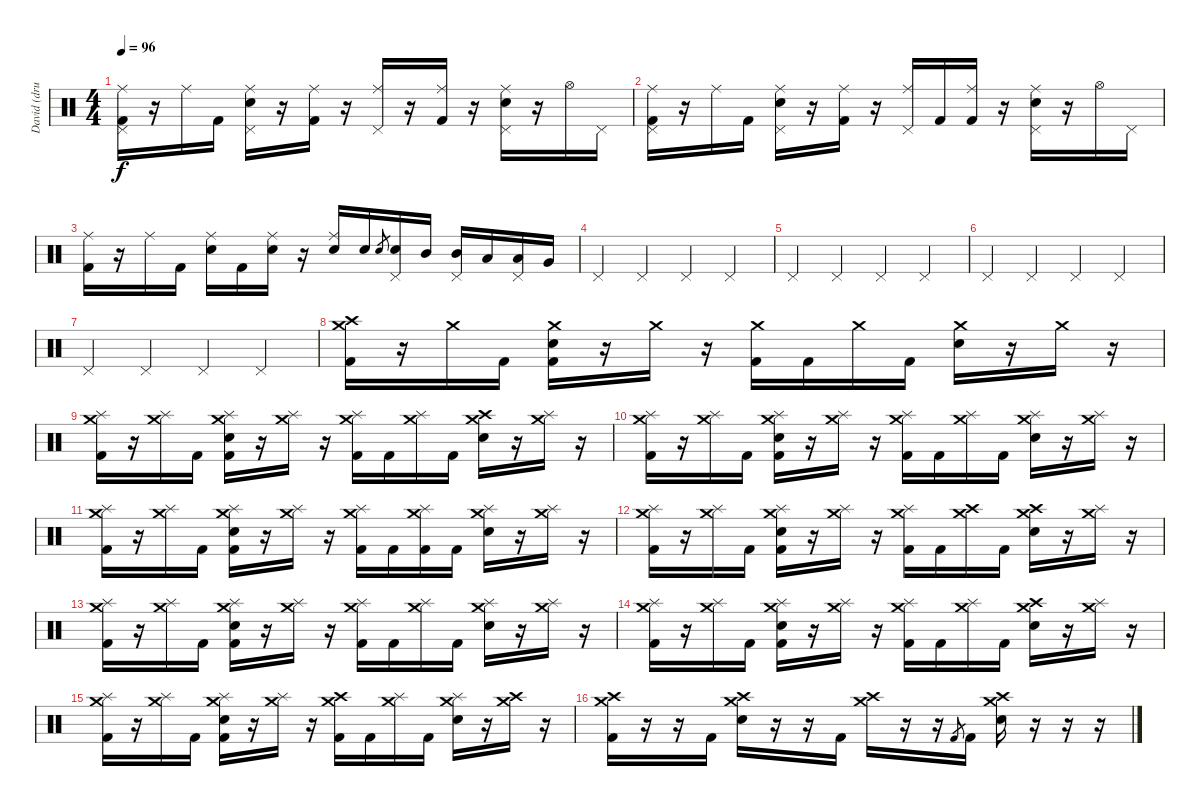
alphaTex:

\track ("David (drums)" "David (dru") {instrument percussion}
\staff {score}
\articulation defaults
\ts (4 4)
\tempo 96
\clef neutral
\ks c
("Ride (middle)" "Pedal Hi-Hat (hit)" "Kick (hit) 2").16{dy f} r.16 "Ride (middle)".16 "Kick (hit) 2".16 ("Ride (middle)" "Pedal Hi-Hat (hit)" "Electric Snare (hit)").16 r.16 ("Ride (middle)" "Kick (hit) 2").16 r.16 ("Ride (middle)" "Pedal Hi-Hat (hit)").16 r.16 ("Ride (middle)" "Kick (hit) 2").16 r.16 ("Ride (middle)" "Pedal Hi-Hat (hit)" "Electric Snare (hit)").16 r.16 "Hi-Hat (open)".16 "Pedal Hi-Hat (hit)".16 |
("Ride (middle)" "Pedal Hi-Hat (hit)" "Kick (hit) 2").16 r.16 "Ride (middle)".16 "Kick (hit) 2".16 ("Ride (middle)" "Pedal Hi-Hat (hit)" "Electric Snare (hit)").16 r.16 ("Ride (middle)" "Kick (hit) 2").16 r.16 ("Ride (middle)" "Pedal Hi-Hat (hit)").16 "Kick (hit) 2".16 ("Ride (middle)" "Kick (hit) 2").16 r.16 ("Ride (middle)" "Pedal Hi-Hat (hit)" "Electric Snare (hit)").16 r.16 "Hi-Hat (open)".16 "Pedal Hi-Hat (hit)".16 |
("Ride (middle)" "Kick (hit) 2").16 r.16 "Ride (middle)".16 "Kick (hit) 2".16 ("Ride (middle)" "Electric Snare (hit)").16 "Kick (hit) 2".16 ("Ride (middle)" "Electric Snare (hit)").16 r.16 ("Ride (middle)" "Electric Snare (hit)").16 "Electric Snare (hit)".16 "Electric Snare (hit)".8{gr} ("Pedal Hi-Hat (hit)" "Electric Snare (hit)").16 "Mid Tom (hit)".16 ("Pedal Hi-Hat (hit)" "Mid Tom (hit)").16 "Low Tom (hit)".16 ("Pedal Hi-Hat (hit)" "Low Tom (hit)").16 "Very Low Tom (hit)".16 |
"Pedal Hi-Hat (hit)".4 "Pedal Hi-Hat (hit)".4 "Pedal Hi-Hat (hit)".4 "Pedal Hi-Hat (hit)".4 |
"Pedal Hi-Hat (hit)".4 "Pedal Hi-Hat (hit)".4 "Pedal Hi-Hat (hit)".4 "Pedal Hi-Hat (hit)".4 |
"Pedal Hi-Hat (hit)".4 "Pedal Hi-Hat (hit)".4 "Pedal Hi-Hat (hit)".4 "Pedal Hi-Hat (hit)".4 |
"Pedal Hi-Hat (hit)".4 "Pedal Hi-Hat (hit)".4 "Pedal Hi-Hat (hit)".4 "Pedal Hi-Hat (hit)".4 |
("Crash high (hit)" "Crash medium (hit)" "Kick (hit) 2").16 r.16 "Crash medium (hit)".16 "Kick (hit) 2".16 ("Crash medium (hit)" "Electric Snare (hit)" "Kick (hit) 2").16 r.16 "Crash medium (hit)".16 r.16 ("Crash medium (hit)" "Kick (hit) 2").16 "Kick (hit) 2".16 "Crash medium (hit)".16 "Kick (hit) 2".16 ("Crash medium (hit)" "Electric Snare (hit)").16 r.16 "Crash medium (hit)".16 r.16 |
("Splash (hit)" "Crash medium (hit)" "Kick (hit) 2").16 r.16 ("Splash (hit)" "Crash medium (hit)").16 "Kick (hit) 2".16 ("Splash (hit)" "Crash medium (hit)" "Electric Snare (hit)" "Kick (hit) 2").16 r.16 ("Splash (hit)" "Crash medium (hit)").16 r.16 ("Splash (hit)" "Crash medium (hit)" "Kick (hit) 2").16 "Kick (hit) 2".16 ("Splash (hit)" "Crash medium (hit)").16 "Kick (hit) 2".16 ("Crash high (hit)" "Crash medium (hit)" "Electric Snare (hit)").16 r.16 ("Splash (hit)" "Crash medium (hit)").16 r.16 |
("Splash (hit)" "Crash medium (hit)" "Kick (hit) 2").16 r.16 ("Splash (hit)" "Crash medium (hit)").16 "Kick (hit) 2".16 ("Splash (hit)" "Crash medium (hit)" "Electric Snare (hit)" "Kick (hit) 2").16 r.16 ("Splash (hit)" "Crash medium (hit)").16 r.16 ("Splash (hit)" "Crash medium (hit)" "Kick (hit) 2").16 "Kick (hit) 2".16 ("Splash (hit)" "Crash medium (hit)").16 "Kick (hit) 2".16 ("Splash (hit)" "Crash medium (hit)" "Electric Snare (hit)").16 r.16 ("Splash (hit)" "Crash medium (hit)").16 r.16 |
("Splash (hit)" "Crash medium (hit)" "Kick (hit) 2").16 r.16 ("Splash (hit)" "Crash medium (hit)").16 "Kick (hit) 2".16 ("Splash (hit)" "Crash medium (hit)" "Electric Snare (hit)" "Kick (hit) 2").16 r.16 ("Splash (hit)" "Crash medium (hit)").16 r.16 ("Splash (hit)" "Crash medium (hit)" "Kick (hit) 2").16 "Kick (hit) 2".16 ("Splash (hit)" "Crash medium (hit)" "Kick (hit) 2").16 "Kick (hit) 2".16 ("Splash (hit)" "Crash medium (hit)" "Electric Snare (hit)").16 r.16 ("Splash (hit)" "Crash medium (hit)").16 r.16 |
("Splash (hit)" "Crash medium (hit)" "Kick (hit) 2").16 r.16 ("Splash (hit)" "Crash medium (hit)").16 "Kick (hit) 2".16 ("Splash (hit)" "Crash medium (hit)" "Electric Snare (hit)" "Kick (hit) 2").16 r.16 ("Splash (hit)" "Crash medium (hit)").16 r.16 ("Splash (hit)" "Crash medium (hit)" "Kick (hit) 2").16 "Kick (hit) 2".16 ("Crash high (hit)" "Crash medium (hit)").16 "Kick (hit) 2".16 ("Crash high (hit)" "Crash medium (hit)" "Electric Snare (hit)").16 r.16 ("Splash (hit)" "Crash medium (hit)").16 r.16 |
("Splash (hit)" "Crash medium (hit)" "Kick (hit) 2").16 r.16 ("Splash (hit)" "Crash medium (hit)").16 "Kick (hit) 2".16 ("Splash (hit)" "Crash medium (hit)" "Electric Snare (hit)" "Kick (hit) 2").16 r.16 ("Splash (hit)" "Crash medium (hit)").16 r.16 ("Splash (hit)" "Crash medium (hit)" "Kick (hit) 2").16 "Kick (hit) 2".16 ("Splash (hit)" "Crash medium (hit)").16 "Kick (hit) 2".16 ("Splash (hit)" "Crash medium (hit)" "Electric Snare (hit)").16 r.16 ("Splash (hit)" "Crash medium (hit)").16 r.16 |
("Splash (hit)" "Crash medium (hit)" "Kick (hit) 2").16 r.16 ("Splash (hit)" "Crash medium (hit)").16 "Kick (hit) 2".16 ("Splash (hit)" "Crash medium (hit)" "Electric Snare (hit)" "Kick (hit) 2").16 r.16 ("Splash (hit)" "Crash medium (hit)").16 r.16 ("Splash (hit)" "Crash medium (hit)" "Kick (hit) 2").16 "Kick (hit) 2".16 ("Splash (hit)" "Crash medium (hit)").16 "Kick (hit) 2".16 ("Crash high (hit)" "Crash medium (hit)" "Electric Snare (hit)").16 r.16 ("Splash (hit)" "Crash medium (hit)").16 r.16 |
("Splash (hit)" "Crash medium (hit)" "Kick (hit) 2").16 r.16 ("Splash (hit)" "Crash medium (hit)").16 "Kick (hit) 2".16 ("Splash (hit)" "Crash medium (hit)" "Electric Snare (hit)" "Kick (hit) 2").16 r.16 ("Splash (hit)" "Crash medium (hit)").16 r.16 ("Crash high (hit)" "Crash medium (hit)" "Kick (hit) 2").16 "Kick (hit) 2".16 ("Splash (hit)" "Crash medium (hit)").16 "Kick (hit) 2".16 ("Splash (hit)" "Crash medium (hit)" "Electric Snare (hit)").16 r.16 ("Crash high (hit)" "Crash medium (hit)").16 r.16 |
("Crash high (hit)" "Crash medium (hit)" "Kick (hit) 2").16 r.16 r.16 "Kick (hit) 2".16 ("Crash high (hit)" "Crash medium (hit)" "Electric Snare (hit)").16 r.16 r.16 "Kick (hit) 2".16 ("Crash high (hit)" "Crash medium (hit)").16 r.16 r.16 "Kick (hit) 2".8{gr} "Kick (hit) 2".16 ("Crash high (hit)" "Crash medium (hit)" "Electric Snare (hit)").16 r.16 r.16 r.16
